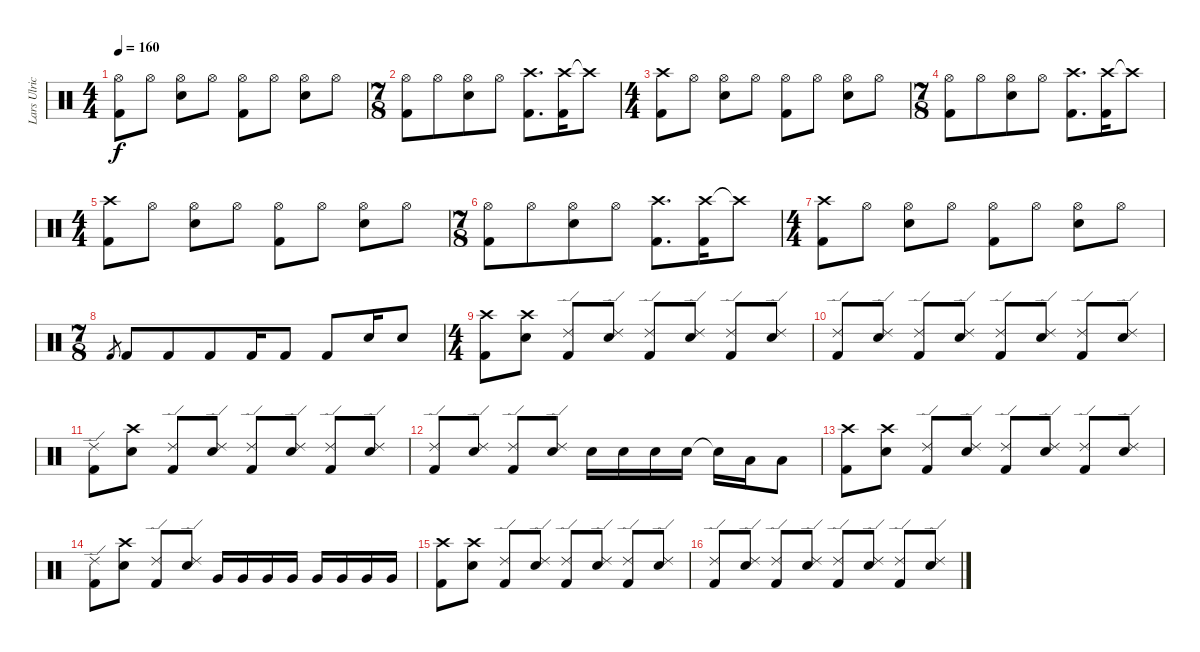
\track ("Lars Ulrich" "Lars Ulric") {instrument percussion}
\staff {score}
\articulation defaults
\ts (4 4)
\tempo 160
\clef neutral
\ks c
("Hi-Hat (open)" "Kick (hit) 2").8{dy f} "Hi-Hat (open)".8 ("Hi-Hat (open)" "Electric Snare (hit)").8 "Hi-Hat (open)".8 ("Hi-Hat (open)" "Kick (hit) 2").8 "Hi-Hat (open)".8 ("Hi-Hat (open)" "Electric Snare (hit)").8 "Hi-Hat (open)".8 |
\ts (7 8)
("Hi-Hat (open)" "Kick (hit) 2").8 "Hi-Hat (open)".8 ("Hi-Hat (open)" "Electric Snare (hit)").8 "Hi-Hat (open)".8 ("Crash high (hit)" "Kick (hit) 2").8{d} ("Crash high (hit)" "Kick (hit) 2").16 "Crash high (hit)"{t}.8 |
\ts (4 4)
("Crash high (hit)" "Kick (hit) 2").8 "Hi-Hat (open)".8 ("Hi-Hat (open)" "Electric Snare (hit)").8 "Hi-Hat (open)".8 ("Hi-Hat (open)" "Kick (hit) 2").8 "Hi-Hat (open)".8 ("Hi-Hat (open)" "Electric Snare (hit)").8 "Hi-Hat (open)".8 |
\ts (7 8)
("Hi-Hat (open)" "Kick (hit) 2").8 "Hi-Hat (open)".8 ("Hi-Hat (open)" "Electric Snare (hit)").8 "Hi-Hat (open)".8 ("Crash high (hit)" "Kick (hit) 2").8{d} ("Crash high (hit)" "Kick (hit) 2").16 "Crash high (hit)"{t}.8 |
\ts (4 4)
("Crash high (hit)" "Kick (hit) 2").8 "Hi-Hat (open)".8 ("Hi-Hat (open)" "Electric Snare (hit)").8 "Hi-Hat (open)".8 ("Hi-Hat (open)" "Kick (hit) 2").8 "Hi-Hat (open)".8 ("Hi-Hat (open)" "Electric Snare (hit)").8 "Hi-Hat (open)".8 |
\ts (7 8)
("Hi-Hat (open)" "Kick (hit) 2").8 "Hi-Hat (open)".8 ("Hi-Hat (open)" "Electric Snare (hit)").8 "Hi-Hat (open)".8 ("Crash high (hit)" "Kick (hit) 2").8{d} ("Crash high (hit)" "Kick (hit) 2").16 "Crash high (hit)"{t}.8 |
\ts (4 4)
("Crash high (hit)" "Kick (hit) 2").8 "Hi-Hat (open)".8 ("Hi-Hat (open)" "Electric Snare (hit)").8 "Hi-Hat (open)".8 ("Hi-Hat (open)" "Kick (hit) 2").8 "Hi-Hat (open)".8 ("Hi-Hat (open)" "Electric Snare (hit)").8 "Hi-Hat (open)".8 |
\ts (7 8)
"Kick (hit) 2".8{gr} "Kick (hit) 2".8 "Kick (hit) 2".8 "Kick (hit) 2".8 "Kick (hit) 2".16 "Kick (hit) 2".8 "Kick (hit) 2".8 "Electric Snare (hit)".16 "Electric Snare (hit)".8 |
\ts (4 4)
("Crash high (hit)" "Kick (hit) 2").8 ("Crash high (hit)" "Electric Snare (hit)").8 ("Ride (edge) 2" "Kick (hit) 2").8 ("Ride (edge) 2" "Electric Snare (hit)").8 ("Ride (edge) 2" "Kick (hit) 2").8 ("Ride (edge) 2" "Electric Snare (hit)").8 ("Ride (edge) 2" "Kick (hit) 2").8 ("Ride (edge) 2" "Electric Snare (hit)").8 |
("Ride (edge) 2" "Kick (hit) 2").8 ("Ride (edge) 2" "Electric Snare (hit)").8 ("Ride (edge) 2" "Kick (hit) 2").8 ("Ride (edge) 2" "Electric Snare (hit)").8 ("Ride (edge) 2" "Kick (hit) 2").8 ("Ride (edge) 2" "Electric Snare (hit)").8 ("Ride (edge) 2" "Kick (hit) 2").8 ("Ride (edge) 2" "Electric Snare (hit)").8 |
("Ride (edge) 2" "Kick (hit) 2").8 ("Crash high (hit)" "Electric Snare (hit)").8 ("Ride (edge) 2" "Kick (hit) 2").8 ("Ride (edge) 2" "Electric Snare (hit)").8 ("Ride (edge) 2" "Kick (hit) 2").8 ("Ride (edge) 2" "Electric Snare (hit)").8 ("Ride (edge) 2" "Kick (hit) 2").8 ("Ride (edge) 2" "Electric Snare (hit)").8 |
("Ride (edge) 2" "Kick (hit) 2").8 ("Ride (edge) 2" "Electric Snare (hit)").8 ("Ride (edge) 2" "Kick (hit) 2").8 ("Ride (edge) 2" "Electric Snare (hit)").8 "Electric Snare (hit)".16 "Electric Snare (hit)".16 "Electric Snare (hit)".16 "Electric Snare (hit)".16 "Snare (hit)"{t}.16 "Low Tom (hit)".16 "Low Tom (hit)".8 |
("Crash high (hit)" "Kick (hit) 2").8 ("Crash high (hit)" "Electric Snare (hit)").8 ("Ride (edge) 2" "Kick (hit) 2").8 ("Ride (edge) 2" "Electric Snare (hit)").8 ("Ride (edge) 2" "Kick (hit) 2").8 ("Ride (edge) 2" "Electric Snare (hit)").8 ("Ride (edge) 2" "Kick (hit) 2").8 ("Ride (edge) 2" "Electric Snare (hit)").8 |
("Ride (edge) 2" "Kick (hit) 2").8 ("Crash high (hit)" "Electric Snare (hit)").8 ("Ride (edge) 2" "Kick (hit) 2").8 ("Ride (edge) 2" "Electric Snare (hit)").8 "Very Low Tom (hit)".16 "Very Low Tom (hit)".16 "Very Low Tom (hit)".16 "Very Low Tom (hit)".16 "Very Low Tom (hit)".16 "Very Low Tom (hit)".16 "Very Low Tom (hit)".16 "Very Low Tom (hit)".16 |
("Crash high (hit)" "Kick (hit) 2").8 ("Crash high (hit)" "Electric Snare (hit)").8 ("Ride (edge) 2" "Kick (hit) 2").8 ("Ride (edge) 2" "Electric Snare (hit)").8 ("Ride (edge) 2" "Kick (hit) 2").8 ("Ride (edge) 2" "Electric Snare (hit)").8 ("Ride (edge) 2" "Kick (hit) 2").8 ("Ride (edge) 2" "Electric Snare (hit)").8 |
("Ride (edge) 2" "Kick (hit) 2").8 ("Ride (edge) 2" "Electric Snare (hit)").8 ("Ride (edge) 2" "Kick (hit) 2").8 ("Ride (edge) 2" "Electric Snare (hit)").8 ("Ride (edge) 2" "Kick (hit) 2").8 ("Ride (edge) 2" "Electric Snare (hit)").8 ("Ride (edge) 2" "Kick (hit) 2").8 ("Ride (edge) 2" "Electric Snare (hit)").8
